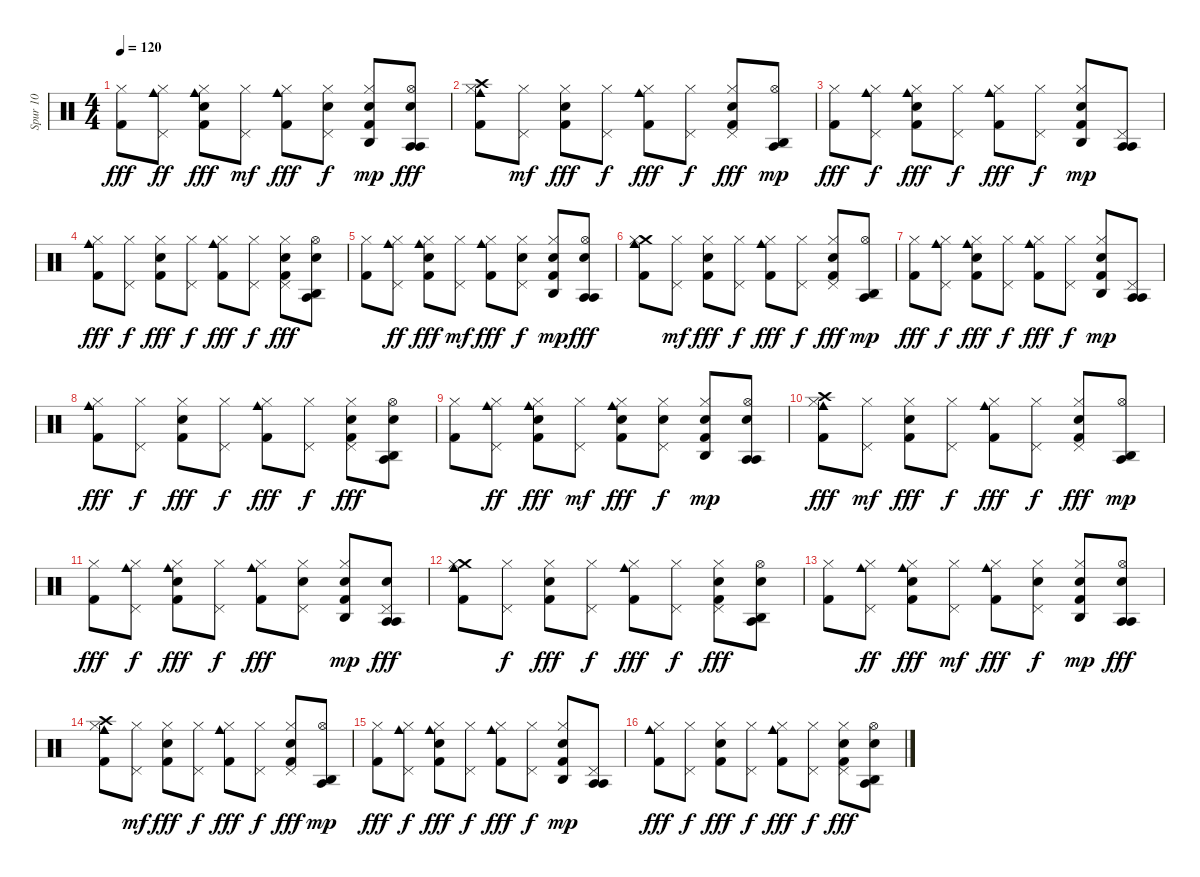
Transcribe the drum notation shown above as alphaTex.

\track ("Spur 10" "Spur 10") {instrument percussion}
\staff {score}
\articulation defaults
\ts (4 4)
\tempo 120
\clef neutral
\ks c
("Kick (hit) 2" "Hi-Hat (closed)").8{dy fff} ("Cowbell medium (hit)" "Hi-Hat (closed)" "Pedal Hi-Hat (hit)").8{dy ff} ("Electric Snare (hit)" "Kick (hit) 2" "Hi-Hat (closed)" "Cowbell medium (hit)").8{dy fff} ("Hi-Hat (closed)" "Pedal Hi-Hat (hit)").8{dy mf} ("Cowbell medium (hit)" "Hi-Hat (closed)" "Kick (hit) 2").8{dy fff} ("Hi-Hat (closed)" "Pedal Hi-Hat (hit)" "Electric Snare (hit)").8{dy f} ("Hi-Hat (closed)" "Kick (hit) 2" "Electric Snare (hit)" "Agogo high (hit)").8{dy mp} ("Agogo tow (hit)" "Hi-Hat (open)" "Agogo tow (hit)" "Electric Snare (hit)").8{dy fff} |
("Cowbell medium (hit)" "Crash high (hit)" "Hi-Hat (closed)" "Kick (hit) 2").8 ("Hi-Hat (closed)" "Pedal Hi-Hat (hit)").8{dy mf} ("Electric Snare (hit)" "Kick (hit) 2" "Hi-Hat (closed)").8{dy fff} ("Hi-Hat (closed)" "Pedal Hi-Hat (hit)").8{dy f} ("Cowbell medium (hit)" "Kick (hit) 2" "Hi-Hat (closed)").8{dy fff} ("Hi-Hat (closed)" "Pedal Hi-Hat (hit)").8{dy f} ("Kick (hit) 2" "Electric Snare (hit)" "Hi-Hat (closed)" "Pedal Hi-Hat (hit)").8{dy fff} ("Agogo high (hit)" "Hi-Hat (open)" "Agogo tow (hit)").8{dy mp} |
("Kick (hit) 2" "Hi-Hat (closed)").8{dy fff} ("Cowbell medium (hit)" "Hi-Hat (closed)" "Pedal Hi-Hat (hit)").8{dy f} ("Hi-Hat (closed)" "Kick (hit) 2" "Electric Snare (hit)" "Cowbell medium (hit)").8{dy fff} ("Hi-Hat (closed)" "Pedal Hi-Hat (hit)").8{dy f} ("Cowbell medium (hit)" "Kick (hit) 2" "Hi-Hat (closed)").8{dy fff} ("Hi-Hat (closed)" "Pedal Hi-Hat (hit)").8{dy f} ("Electric Snare (hit)" "Kick (hit) 2" "Hi-Hat (closed)" "Agogo high (hit)").8{dy mp} ("Agogo tow (hit)" "Pedal Hi-Hat (hit)" "Agogo tow (hit)").8 |
("Cowbell medium (hit)" "Kick (hit) 2" "Hi-Hat (closed)").8{dy fff} ("Hi-Hat (closed)" "Pedal Hi-Hat (hit)").8{dy f} ("Electric Snare (hit)" "Kick (hit) 2" "Hi-Hat (closed)").8{dy fff} ("Hi-Hat (closed)" "Pedal Hi-Hat (hit)").8{dy f} ("Cowbell medium (hit)" "Hi-Hat (closed)" "Kick (hit) 2").8{dy fff} ("Hi-Hat (closed)" "Pedal Hi-Hat (hit)").8{dy f} ("Kick (hit) 2" "Electric Snare (hit)" "Hi-Hat (closed)" "Pedal Hi-Hat (hit)").8{dy fff} ("Agogo high (hit)" "Hi-Hat (open)" "Agogo tow (hit)" "Electric Snare (hit)").8 |
("Kick (hit) 2" "Hi-Hat (closed)").8 ("Cowbell medium (hit)" "Hi-Hat (closed)" "Pedal Hi-Hat (hit)").8{dy ff} ("Electric Snare (hit)" "Kick (hit) 2" "Hi-Hat (closed)" "Cowbell medium (hit)").8{dy fff} ("Hi-Hat (closed)" "Pedal Hi-Hat (hit)").8{dy mf} ("Cowbell medium (hit)" "Hi-Hat (closed)" "Kick (hit) 2").8{dy fff} ("Hi-Hat (closed)" "Pedal Hi-Hat (hit)" "Electric Snare (hit)").8{dy f} ("Hi-Hat (closed)" "Kick (hit) 2" "Electric Snare (hit)" "Agogo high (hit)").8{dy mp} ("Agogo tow (hit)" "Hi-Hat (open)" "Agogo tow (hit)" "Electric Snare (hit)").8{dy fff} |
("Cowbell medium (hit)" "Crash medium (hit)" "Hi-Hat (closed)" "Kick (hit) 2").8 ("Hi-Hat (closed)" "Pedal Hi-Hat (hit)").8{dy mf} ("Electric Snare (hit)" "Kick (hit) 2" "Hi-Hat (closed)").8{dy fff} ("Hi-Hat (closed)" "Pedal Hi-Hat (hit)").8{dy f} ("Cowbell medium (hit)" "Kick (hit) 2" "Hi-Hat (closed)").8{dy fff} ("Hi-Hat (closed)" "Pedal Hi-Hat (hit)").8{dy f} ("Kick (hit) 2" "Electric Snare (hit)" "Hi-Hat (closed)" "Pedal Hi-Hat (hit)").8{dy fff} ("Agogo high (hit)" "Hi-Hat (open)" "Agogo tow (hit)").8{dy mp} |
("Kick (hit) 2" "Hi-Hat (closed)").8{dy fff} ("Cowbell medium (hit)" "Hi-Hat (closed)" "Pedal Hi-Hat (hit)").8{dy f} ("Hi-Hat (closed)" "Kick (hit) 2" "Electric Snare (hit)" "Cowbell medium (hit)").8{dy fff} ("Hi-Hat (closed)" "Pedal Hi-Hat (hit)").8{dy f} ("Cowbell medium (hit)" "Kick (hit) 2" "Hi-Hat (closed)").8{dy fff} ("Hi-Hat (closed)" "Pedal Hi-Hat (hit)").8{dy f} ("Electric Snare (hit)" "Kick (hit) 2" "Hi-Hat (closed)" "Agogo high (hit)").8{dy mp} ("Agogo tow (hit)" "Pedal Hi-Hat (hit)" "Agogo tow (hit)").8 |
("Cowbell medium (hit)" "Kick (hit) 2" "Hi-Hat (closed)").8{dy fff} ("Hi-Hat (closed)" "Pedal Hi-Hat (hit)").8{dy f} ("Electric Snare (hit)" "Kick (hit) 2" "Hi-Hat (closed)").8{dy fff} ("Hi-Hat (closed)" "Pedal Hi-Hat (hit)").8{dy f} ("Cowbell medium (hit)" "Hi-Hat (closed)" "Kick (hit) 2").8{dy fff} ("Hi-Hat (closed)" "Pedal Hi-Hat (hit)").8{dy f} ("Kick (hit) 2" "Electric Snare (hit)" "Hi-Hat (closed)" "Pedal Hi-Hat (hit)").8{dy fff} ("Agogo high (hit)" "Hi-Hat (open)" "Agogo tow (hit)" "Electric Snare (hit)").8 |
("Kick (hit) 2" "Hi-Hat (closed)").8 ("Cowbell medium (hit)" "Hi-Hat (closed)" "Pedal Hi-Hat (hit)").8{dy ff} ("Electric Snare (hit)" "Kick (hit) 2" "Hi-Hat (closed)" "Cowbell medium (hit)").8{dy fff} ("Hi-Hat (closed)" "Pedal Hi-Hat (hit)").8{dy mf} ("Cowbell medium (hit)" "Electric Snare (hit)" "Hi-Hat (closed)" "Kick (hit) 2").8{dy fff} ("Hi-Hat (closed)" "Pedal Hi-Hat (hit)" "Electric Snare (hit)").8{dy f} ("Hi-Hat (closed)" "Kick (hit) 2" "Electric Snare (hit)" "Agogo high (hit)").8{dy mp} ("Agogo tow (hit)" "Electric Snare (hit)" "Hi-Hat (open)" "Agogo tow (hit)").8 |
("Cowbell medium (hit)" "Crash high (hit)" "Hi-Hat (closed)" "Kick (hit) 2").8{dy fff} ("Hi-Hat (closed)" "Pedal Hi-Hat (hit)").8{dy mf} ("Electric Snare (hit)" "Kick (hit) 2" "Hi-Hat (closed)").8{dy fff} ("Hi-Hat (closed)" "Pedal Hi-Hat (hit)").8{dy f} ("Cowbell medium (hit)" "Kick (hit) 2" "Hi-Hat (closed)").8{dy fff} ("Hi-Hat (closed)" "Pedal Hi-Hat (hit)").8{dy f} ("Kick (hit) 2" "Electric Snare (hit)" "Hi-Hat (closed)" "Pedal Hi-Hat (hit)").8{dy fff} ("Agogo high (hit)" "Hi-Hat (open)" "Agogo tow (hit)").8{dy mp} |
("Kick (hit) 2" "Hi-Hat (closed)").8{dy fff} ("Cowbell medium (hit)" "Hi-Hat (closed)" "Pedal Hi-Hat (hit)").8{dy f} ("Hi-Hat (closed)" "Kick (hit) 2" "Electric Snare (hit)" "Cowbell medium (hit)").8{dy fff} ("Hi-Hat (closed)" "Pedal Hi-Hat (hit)").8{dy f} ("Cowbell medium (hit)" "Kick (hit) 2" "Hi-Hat (closed)").8{dy fff} ("Hi-Hat (closed)" "Electric Snare (hit)" "Pedal Hi-Hat (hit)").8 ("Electric Snare (hit)" "Kick (hit) 2" "Hi-Hat (closed)" "Agogo high (hit)").8{dy mp} ("Agogo tow (hit)" "Pedal Hi-Hat (hit)" "Agogo tow (hit)" "Electric Snare (hit)").8{dy fff} |
("Cowbell medium (hit)" "Crash medium (hit)" "Kick (hit) 2" "Hi-Hat (closed)").8 ("Hi-Hat (closed)" "Pedal Hi-Hat (hit)").8{dy f} ("Electric Snare (hit)" "Kick (hit) 2" "Hi-Hat (closed)").8{dy fff} ("Hi-Hat (closed)" "Pedal Hi-Hat (hit)").8{dy f} ("Cowbell medium (hit)" "Hi-Hat (closed)" "Kick (hit) 2").8{dy fff} ("Hi-Hat (closed)" "Pedal Hi-Hat (hit)").8{dy f} ("Kick (hit) 2" "Electric Snare (hit)" "Hi-Hat (closed)" "Pedal Hi-Hat (hit)").8{dy fff} ("Agogo high (hit)" "Hi-Hat (open)" "Agogo tow (hit)" "Electric Snare (hit)").8 |
("Kick (hit) 2" "Hi-Hat (closed)").8 ("Cowbell medium (hit)" "Hi-Hat (closed)" "Pedal Hi-Hat (hit)").8{dy ff} ("Electric Snare (hit)" "Kick (hit) 2" "Hi-Hat (closed)" "Cowbell medium (hit)").8{dy fff} ("Hi-Hat (closed)" "Pedal Hi-Hat (hit)").8{dy mf} ("Cowbell medium (hit)" "Hi-Hat (closed)" "Kick (hit) 2").8{dy fff} ("Hi-Hat (closed)" "Pedal Hi-Hat (hit)" "Electric Snare (hit)").8{dy f} ("Hi-Hat (closed)" "Kick (hit) 2" "Electric Snare (hit)" "Agogo high (hit)").8{dy mp} ("Agogo tow (hit)" "Hi-Hat (open)" "Agogo tow (hit)" "Electric Snare (hit)").8{dy fff} |
("Cowbell medium (hit)" "Crash high (hit)" "Hi-Hat (closed)" "Kick (hit) 2").8 ("Hi-Hat (closed)" "Pedal Hi-Hat (hit)").8{dy mf} ("Electric Snare (hit)" "Kick (hit) 2" "Hi-Hat (closed)").8{dy fff} ("Hi-Hat (closed)" "Pedal Hi-Hat (hit)").8{dy f} ("Cowbell medium (hit)" "Kick (hit) 2" "Hi-Hat (closed)").8{dy fff} ("Hi-Hat (closed)" "Pedal Hi-Hat (hit)").8{dy f} ("Kick (hit) 2" "Electric Snare (hit)" "Hi-Hat (closed)" "Pedal Hi-Hat (hit)").8{dy fff} ("Agogo high (hit)" "Hi-Hat (open)" "Agogo tow (hit)").8{dy mp} |
("Kick (hit) 2" "Hi-Hat (closed)").8{dy fff} ("Cowbell medium (hit)" "Hi-Hat (closed)" "Pedal Hi-Hat (hit)").8{dy f} ("Hi-Hat (closed)" "Kick (hit) 2" "Electric Snare (hit)" "Cowbell medium (hit)").8{dy fff} ("Hi-Hat (closed)" "Pedal Hi-Hat (hit)").8{dy f} ("Cowbell medium (hit)" "Kick (hit) 2" "Hi-Hat (closed)").8{dy fff} ("Hi-Hat (closed)" "Pedal Hi-Hat (hit)").8{dy f} ("Electric Snare (hit)" "Kick (hit) 2" "Hi-Hat (closed)" "Agogo high (hit)").8{dy mp} ("Agogo tow (hit)" "Pedal Hi-Hat (hit)" "Agogo tow (hit)").8 |
("Cowbell medium (hit)" "Kick (hit) 2" "Hi-Hat (closed)").8{dy fff} ("Hi-Hat (closed)" "Pedal Hi-Hat (hit)").8{dy f} ("Electric Snare (hit)" "Kick (hit) 2" "Hi-Hat (closed)").8{dy fff} ("Hi-Hat (closed)" "Pedal Hi-Hat (hit)").8{dy f} ("Cowbell medium (hit)" "Hi-Hat (closed)" "Kick (hit) 2").8{dy fff} ("Hi-Hat (closed)" "Pedal Hi-Hat (hit)").8{dy f} ("Kick (hit) 2" "Electric Snare (hit)" "Hi-Hat (closed)" "Pedal Hi-Hat (hit)").8{dy fff} ("Agogo high (hit)" "Hi-Hat (open)" "Agogo tow (hit)" "Electric Snare (hit)").8
